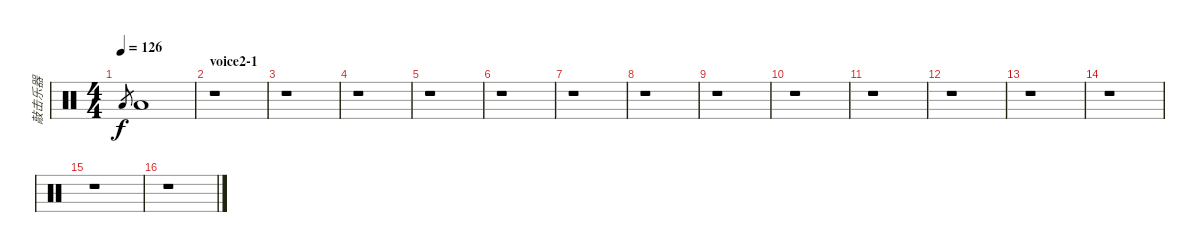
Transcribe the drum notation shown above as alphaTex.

\track ("敲击乐器" "敲击乐器") {instrument percussion}
\staff {score}
\articulation defaults
\ts (4 4)
\tempo 126
\clef neutral
\ks c "Low Floor Tom (hit)".8{gr dy f} "Low Floor Tom (hit)".1
|
\section ("" "voice2-1")
r.1 |
r.1 |
r.1 |
r.1 |
r.1 |
r.1 |
r.1 |
r.1 |
r.1 |
r.1 |
r.1 |
r.1 |
r.1 |
r.1 |
r.1
